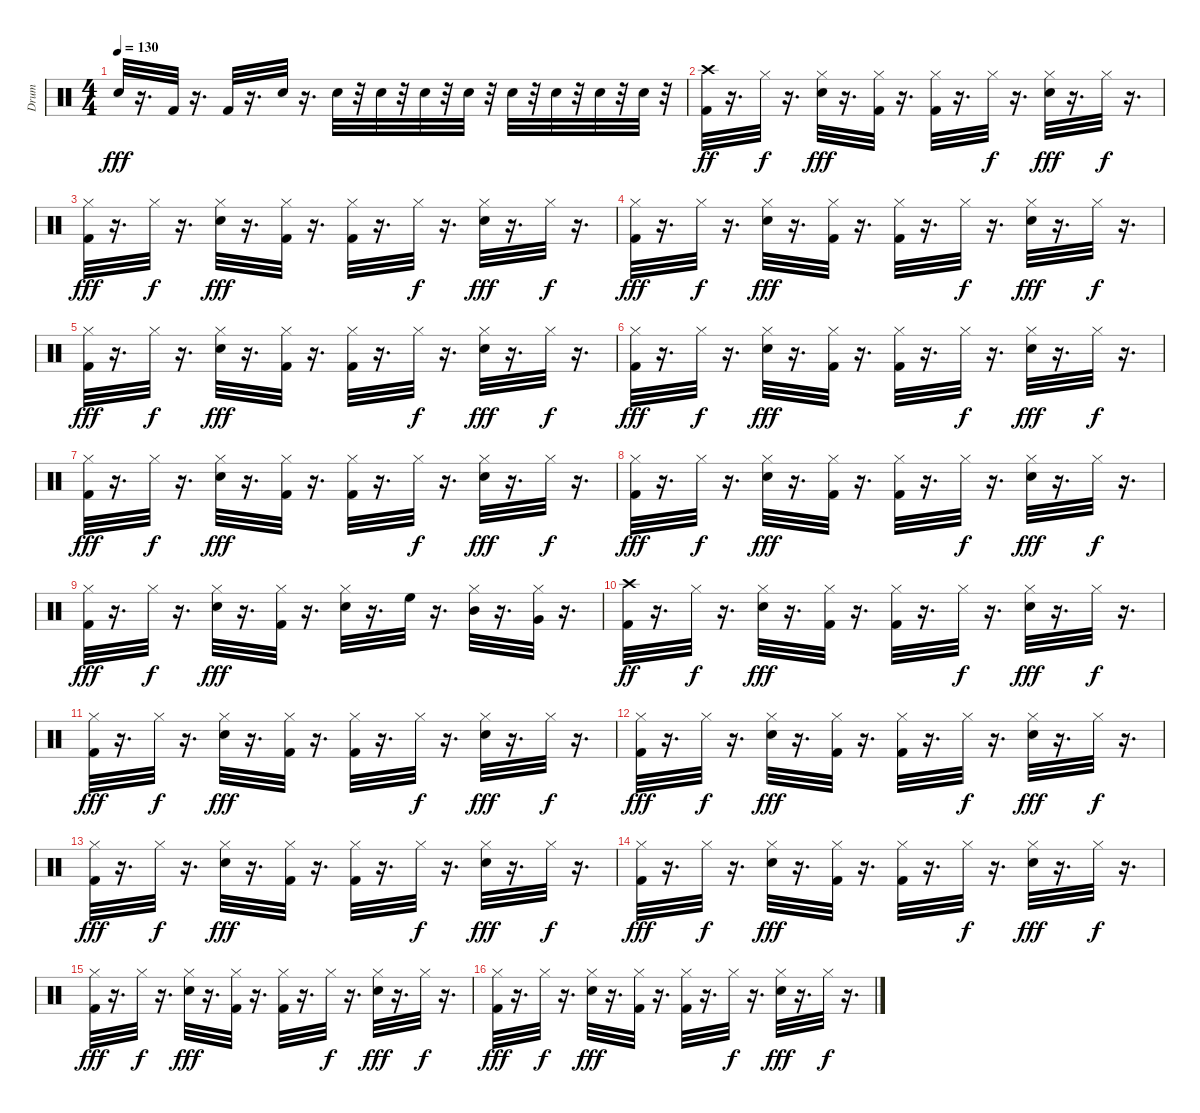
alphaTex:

\track ("Drum" "Drum") {instrument percussion}
\staff {score}
\articulation defaults
\ts (4 4)
\tempo 130
\clef neutral
\ks c "Electric Snare (hit)".32{dy fff}
r.16{d} "Kick (hit) 2".32 r.16{d} "Kick (hit) 2".32 r.16{d} "Electric Snare (hit)".32 r.16{d} "Electric Snare (hit)".32 r.32 "Snare (hit) 2".32 r.32 "Electric Snare (hit)".32 r.32 "Snare (hit) 2".32 r.32 "Electric Snare (hit)".32 r.32 "Snare (hit) 2".32 r.32 "Electric Snare (hit)".32 r.32 "Snare (hit) 2".32 r.32 |
("Kick (hit) 2" "Crash high (hit)").32{dy ff} r.16{d} "Hi-Hat (closed)".32{dy f} r.16{d} ("Hi-Hat (closed)" "Electric Snare (hit)").32{dy fff} r.16{d} ("Kick (hit) 2" "Hi-Hat (closed)").32 r.16{d} ("Kick (hit) 2" "Hi-Hat (closed)").32 r.16{d} "Hi-Hat (closed)".32{dy f} r.16{d} ("Hi-Hat (closed)" "Electric Snare (hit)").32{dy fff} r.16{d} "Hi-Hat (closed)".32{dy f} r.16{d} |
("Kick (hit) 2" "Hi-Hat (closed)").32{dy fff} r.16{d} "Hi-Hat (closed)".32{dy f} r.16{d} ("Hi-Hat (closed)" "Electric Snare (hit)").32{dy fff} r.16{d} ("Kick (hit) 2" "Hi-Hat (closed)").32 r.16{d} ("Kick (hit) 2" "Hi-Hat (closed)").32 r.16{d} "Hi-Hat (closed)".32{dy f} r.16{d} ("Hi-Hat (closed)" "Electric Snare (hit)").32{dy fff} r.16{d} "Hi-Hat (closed)".32{dy f} r.16{d} |
("Kick (hit) 2" "Hi-Hat (closed)").32{dy fff} r.16{d} "Hi-Hat (closed)".32{dy f} r.16{d} ("Hi-Hat (closed)" "Electric Snare (hit)").32{dy fff} r.16{d} ("Kick (hit) 2" "Hi-Hat (closed)").32 r.16{d} ("Kick (hit) 2" "Hi-Hat (closed)").32 r.16{d} "Hi-Hat (closed)".32{dy f} r.16{d} ("Hi-Hat (closed)" "Electric Snare (hit)").32{dy fff} r.16{d} "Hi-Hat (closed)".32{dy f} r.16{d} |
("Kick (hit) 2" "Hi-Hat (closed)").32{dy fff} r.16{d} "Hi-Hat (closed)".32{dy f} r.16{d} ("Hi-Hat (closed)" "Electric Snare (hit)").32{dy fff} r.16{d} ("Kick (hit) 2" "Hi-Hat (closed)").32 r.16{d} ("Kick (hit) 2" "Hi-Hat (closed)").32 r.16{d} "Hi-Hat (closed)".32{dy f} r.16{d} ("Hi-Hat (closed)" "Electric Snare (hit)").32{dy fff} r.16{d} "Hi-Hat (closed)".32{dy f} r.16{d} |
("Kick (hit) 2" "Hi-Hat (closed)").32{dy fff} r.16{d} "Hi-Hat (closed)".32{dy f} r.16{d} ("Hi-Hat (closed)" "Electric Snare (hit)").32{dy fff} r.16{d} ("Kick (hit) 2" "Hi-Hat (closed)").32 r.16{d} ("Kick (hit) 2" "Hi-Hat (closed)").32 r.16{d} "Hi-Hat (closed)".32{dy f} r.16{d} ("Hi-Hat (closed)" "Electric Snare (hit)").32{dy fff} r.16{d} "Hi-Hat (closed)".32{dy f} r.16{d} |
("Kick (hit) 2" "Hi-Hat (closed)").32{dy fff} r.16{d} "Hi-Hat (closed)".32{dy f} r.16{d} ("Hi-Hat (closed)" "Electric Snare (hit)").32{dy fff} r.16{d} ("Kick (hit) 2" "Hi-Hat (closed)").32 r.16{d} ("Kick (hit) 2" "Hi-Hat (closed)").32 r.16{d} "Hi-Hat (closed)".32{dy f} r.16{d} ("Hi-Hat (closed)" "Electric Snare (hit)").32{dy fff} r.16{d} "Hi-Hat (closed)".32{dy f} r.16{d} |
("Kick (hit) 2" "Hi-Hat (closed)").32{dy fff} r.16{d} "Hi-Hat (closed)".32{dy f} r.16{d} ("Hi-Hat (closed)" "Electric Snare (hit)").32{dy fff} r.16{d} ("Kick (hit) 2" "Hi-Hat (closed)").32 r.16{d} ("Kick (hit) 2" "Hi-Hat (closed)").32 r.16{d} "Hi-Hat (closed)".32{dy f} r.16{d} ("Hi-Hat (closed)" "Electric Snare (hit)").32{dy fff} r.16{d} "Hi-Hat (closed)".32{dy f} r.16{d} |
("Kick (hit) 2" "Hi-Hat (closed)").32{dy fff} r.16{d} "Hi-Hat (closed)".32{dy f} r.16{d} ("Hi-Hat (closed)" "Electric Snare (hit)").32{dy fff} r.16{d} ("Kick (hit) 2" "Hi-Hat (closed)").32 r.16{d} ("Electric Snare (hit)" "Hi-Hat (closed)").32 r.16{d} "High Floor Tom (hit)".32 r.16{d} ("Hi-Hat (closed)" "Mid Tom (hit)").32 r.16{d} ("Very Low Tom (hit)" "Hi-Hat (closed)").32 r.16{d} |
("Kick (hit) 2" "Crash high (hit)").32{dy ff} r.16{d} "Hi-Hat (closed)".32{dy f} r.16{d} ("Hi-Hat (closed)" "Electric Snare (hit)").32{dy fff} r.16{d} ("Kick (hit) 2" "Hi-Hat (closed)").32 r.16{d} ("Kick (hit) 2" "Hi-Hat (closed)").32 r.16{d} "Hi-Hat (closed)".32{dy f} r.16{d} ("Hi-Hat (closed)" "Electric Snare (hit)").32{dy fff} r.16{d} "Hi-Hat (closed)".32{dy f} r.16{d} |
("Kick (hit) 2" "Hi-Hat (closed)").32{dy fff} r.16{d} "Hi-Hat (closed)".32{dy f} r.16{d} ("Hi-Hat (closed)" "Electric Snare (hit)").32{dy fff} r.16{d} ("Kick (hit) 2" "Hi-Hat (closed)").32 r.16{d} ("Kick (hit) 2" "Hi-Hat (closed)").32 r.16{d} "Hi-Hat (closed)".32{dy f} r.16{d} ("Hi-Hat (closed)" "Electric Snare (hit)").32{dy fff} r.16{d} "Hi-Hat (closed)".32{dy f} r.16{d} |
("Hi-Hat (closed)" "Kick (hit) 2").32{dy fff} r.16{d} "Hi-Hat (closed)".32{dy f} r.16{d} ("Hi-Hat (closed)" "Electric Snare (hit)").32{dy fff} r.16{d} ("Kick (hit) 2" "Hi-Hat (closed)").32 r.16{d} ("Kick (hit) 2" "Hi-Hat (closed)").32 r.16{d} "Hi-Hat (closed)".32{dy f} r.16{d} ("Hi-Hat (closed)" "Electric Snare (hit)").32{dy fff} r.16{d} "Hi-Hat (closed)".32{dy f} r.16{d} |
("Kick (hit) 2" "Hi-Hat (closed)").32{dy fff} r.16{d} "Hi-Hat (closed)".32{dy f} r.16{d} ("Hi-Hat (closed)" "Electric Snare (hit)").32{dy fff} r.16{d} ("Kick (hit) 2" "Hi-Hat (closed)").32 r.16{d} ("Kick (hit) 2" "Hi-Hat (closed)").32 r.16{d} "Hi-Hat (closed)".32{dy f} r.16{d} ("Hi-Hat (closed)" "Electric Snare (hit)").32{dy fff} r.16{d} "Hi-Hat (closed)".32{dy f} r.16{d} |
("Kick (hit) 2" "Hi-Hat (closed)").32{dy fff} r.16{d} "Hi-Hat (closed)".32{dy f} r.16{d} ("Hi-Hat (closed)" "Electric Snare (hit)").32{dy fff} r.16{d} ("Kick (hit) 2" "Hi-Hat (closed)").32 r.16{d} ("Kick (hit) 2" "Hi-Hat (closed)").32 r.16{d} "Hi-Hat (closed)".32{dy f} r.16{d} ("Hi-Hat (closed)" "Electric Snare (hit)").32{dy fff} r.16{d} "Hi-Hat (closed)".32{dy f} r.16{d} |
("Kick (hit) 2" "Hi-Hat (closed)").32{dy fff} r.16{d} "Hi-Hat (closed)".32{dy f} r.16{d} ("Hi-Hat (closed)" "Electric Snare (hit)").32{dy fff} r.16{d} ("Kick (hit) 2" "Hi-Hat (closed)").32 r.16{d} ("Kick (hit) 2" "Hi-Hat (closed)").32 r.16{d} "Hi-Hat (closed)".32{dy f} r.16{d} ("Hi-Hat (closed)" "Electric Snare (hit)").32{dy fff} r.16{d} "Hi-Hat (closed)".32{dy f} r.16{d} |
("Hi-Hat (closed)" "Kick (hit) 2").32{dy fff} r.16{d} "Hi-Hat (closed)".32{dy f} r.16{d} ("Hi-Hat (closed)" "Electric Snare (hit)").32{dy fff} r.16{d} ("Kick (hit) 2" "Hi-Hat (closed)").32 r.16{d} ("Kick (hit) 2" "Hi-Hat (closed)").32 r.16{d} "Hi-Hat (closed)".32{dy f} r.16{d} ("Hi-Hat (closed)" "Electric Snare (hit)").32{dy fff} r.16{d} "Hi-Hat (closed)".32{dy f} r.16{d}
